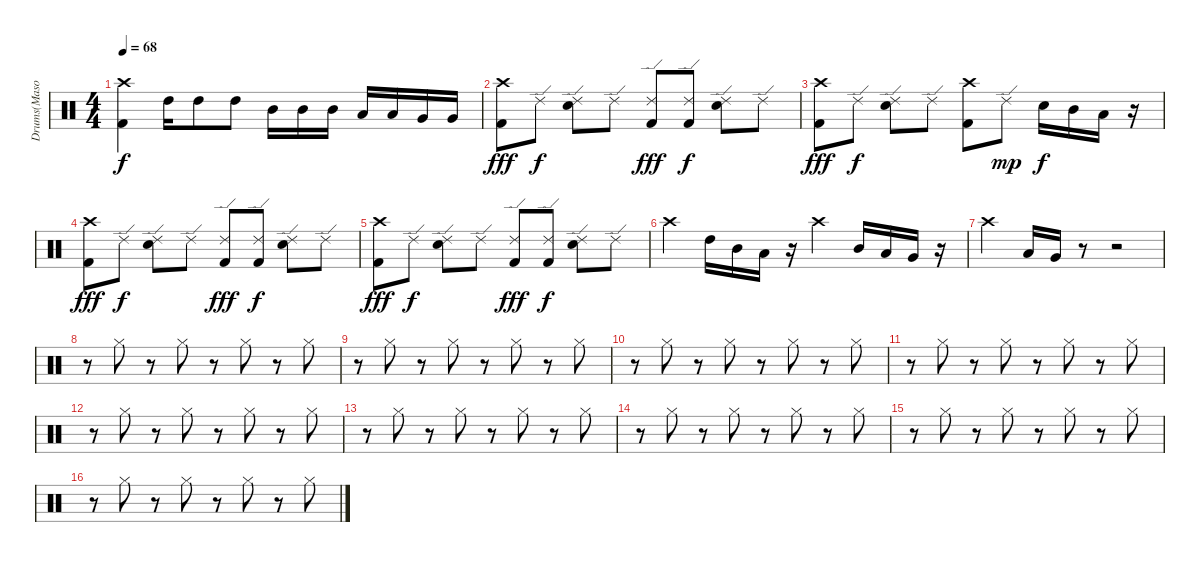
\track ("Drums(Mason)" "Drums(Maso") {instrument percussion}
\staff {score}
\articulation defaults
\ts (4 4)
\tempo 68
\clef neutral
\ks c
("Crash high (hit)" "Kick (hit) 2").4{dy f} "High Tom (hit)".16 "High Tom (hit)".8 "High Tom (hit)".8 "Mid Tom (hit)".16 "Mid Tom (hit)".16 "Mid Tom (hit)".16 "Low Tom (hit)".16 "Low Tom (hit)".16 "Very Low Tom (hit)".16 "Very Low Tom (hit)".16 |
("Crash high (hit)" "Kick (hit) 2").8{dy fff} "Ride (edge) 2".8{dy f} ("Ride (edge) 2" "Electric Snare (hit)").8 "Ride (edge) 2".8 ("Ride (edge) 2" "Kick (hit) 2").8{dy fff} ("Ride (edge) 2" "Kick (hit) 2").8{dy f} ("Ride (edge) 2" "Electric Snare (hit)").8 "Ride (edge) 2".8 |
("Crash high (hit)" "Kick (hit) 2").8{dy fff} "Ride (edge) 2".8{dy f} ("Ride (edge) 2" "Electric Snare (hit)").8 "Ride (edge) 2".8 ("Crash high (hit)" "Kick (hit) 2").8 "Ride (edge) 2".8{dy mp} "Electric Snare (hit)".16{dy f} "Mid Tom (hit)".16 "Low Tom (hit)".16 r.16 |
("Crash high (hit)" "Kick (hit) 2").8{dy fff} "Ride (edge) 2".8{dy f} ("Ride (edge) 2" "Electric Snare (hit)").8 "Ride (edge) 2".8 ("Ride (edge) 2" "Kick (hit) 2").8{dy fff} ("Ride (edge) 2" "Kick (hit) 2").8{dy f} ("Ride (edge) 2" "Electric Snare (hit)").8 "Ride (edge) 2".8 |
("Crash high (hit)" "Kick (hit) 2").8{dy fff} "Ride (edge) 2".8{dy f} ("Ride (edge) 2" "Electric Snare (hit)").8 "Ride (edge) 2".8 ("Ride (edge) 2" "Kick (hit) 2").8{dy fff} ("Ride (edge) 2" "Kick (hit) 2").8{dy f} ("Ride (edge) 2" "Electric Snare (hit)").8 "Ride (edge) 2".8 |
"Crash high (hit)".4 "High Tom (hit)".16 "Mid Tom (hit)".16 "Low Tom (hit)".16 r.16 "Crash high (hit)".4 "Mid Tom (hit)".16 "Low Tom (hit)".16 "Very Low Tom (hit)".16 r.16 |
"Crash high (hit)".4 "Low Tom (hit)".16 "Very Low Tom (hit)".16 r.8 r.2 |
r.8 "Hi-Hat (closed)".8 r.8 "Hi-Hat (closed)".8 r.8 "Hi-Hat (closed)".8 r.8 "Hi-Hat (closed)".8 |
r.8 "Hi-Hat (closed)".8 r.8 "Hi-Hat (closed)".8 r.8 "Hi-Hat (closed)".8 r.8 "Hi-Hat (closed)".8 |
r.8 "Hi-Hat (closed)".8 r.8 "Hi-Hat (closed)".8 r.8 "Hi-Hat (closed)".8 r.8 "Hi-Hat (closed)".8 |
r.8 "Hi-Hat (closed)".8 r.8 "Hi-Hat (closed)".8 r.8 "Hi-Hat (closed)".8 r.8 "Hi-Hat (closed)".8 |
r.8 "Hi-Hat (closed)".8 r.8 "Hi-Hat (closed)".8 r.8 "Hi-Hat (closed)".8 r.8 "Hi-Hat (closed)".8 |
r.8 "Hi-Hat (closed)".8 r.8 "Hi-Hat (closed)".8 r.8 "Hi-Hat (closed)".8 r.8 "Hi-Hat (closed)".8 |
r.8 "Hi-Hat (closed)".8 r.8 "Hi-Hat (closed)".8 r.8 "Hi-Hat (closed)".8 r.8 "Hi-Hat (closed)".8 |
r.8 "Hi-Hat (closed)".8 r.8 "Hi-Hat (closed)".8 r.8 "Hi-Hat (closed)".8 r.8 "Hi-Hat (closed)".8 |
r.8 "Hi-Hat (closed)".8 r.8 "Hi-Hat (closed)".8 r.8 "Hi-Hat (closed)".8 r.8 "Hi-Hat (closed)".8
